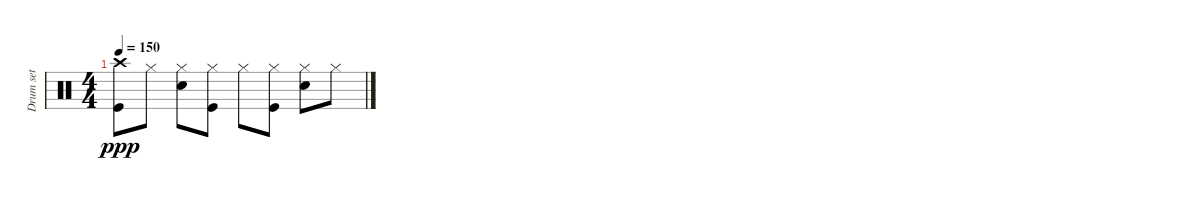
\track ("Drum set" "Drum set") {instrument percussion}
\staff {score}
\articulation defaults
\ts (4 4)
\tempo 150
\clef neutral
\ks c
("Crash high (hit)" "Kick (hit)").8{dy ppp} "Hi-Hat (closed)".8 ("Hi-Hat (closed)" "Snare (hit) 2").8 ("Hi-Hat (closed)" "Kick (hit)").8 "Hi-Hat (closed)".8 ("Hi-Hat (closed)" "Kick (hit)").8 ("Hi-Hat (closed)" "Snare (hit) 2").8 "Hi-Hat (closed)".8
